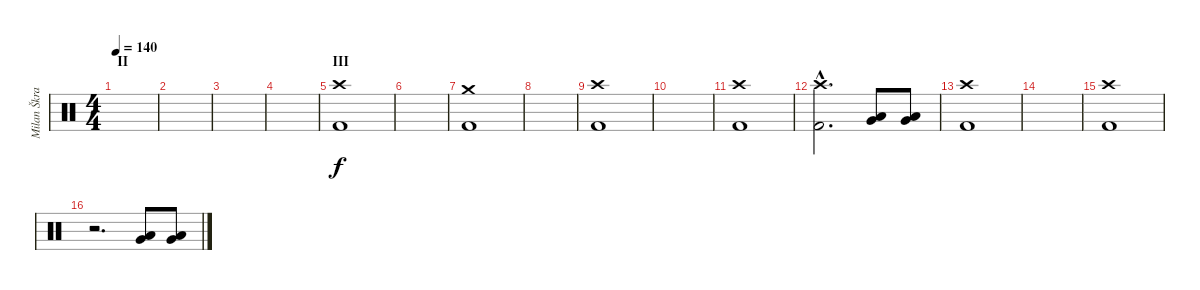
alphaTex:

\track ("Milan Škrabal" "Milan Škra") {instrument percussion}
\staff {score}
\articulation defaults
\ts (4 4)
\section ("" "II")
\tempo 140
\clef neutral
\ks c
|
|
|
|
\section ("" "III")
("Crash high (hit)" "Kick (hit) 2").1 |
|
("Crash medium (hit)" "Kick (hit) 2").1 |
|
("Crash high (hit)" "Kick (hit) 2").1 |
|
("Crash high (hit)" "Kick (hit) 2").1 |
("Crash high (hit)"{hac} "Kick (hit) 2"{hac}).2{d} ("Low Tom (hit)" "Very Low Tom (hit)").8 ("Low Tom (hit)" "Very Low Tom (hit)").8 |
("Crash high (hit)" "Kick (hit) 2").1 |
|
("Crash high (hit)" "Kick (hit) 2").1 |
r.2{d} ("Low Tom (hit)" "Very Low Tom (hit)").8 ("Low Tom (hit)" "Very Low Tom (hit)").8
